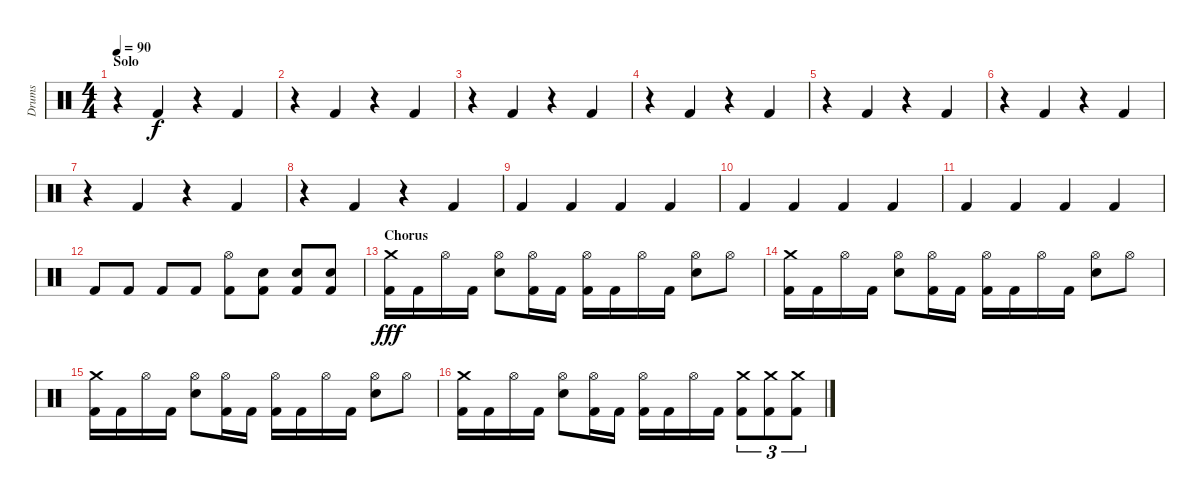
\track ("Drums" "Drums") {instrument percussion}
\staff {score}
\articulation defaults
\ts (4 4)
\section ("" "Solo")
\tempo 90
\clef neutral
\ks c
r.4{dy fff} "Kick (hit) 2".4{dy f} r.4 "Kick (hit) 2".4 |
r.4 "Kick (hit) 2".4 r.4 "Kick (hit) 2".4 |
r.4 "Kick (hit) 2".4 r.4 "Kick (hit) 2".4 |
r.4 "Kick (hit) 2".4 r.4 "Kick (hit) 2".4 |
r.4 "Kick (hit) 2".4 r.4 "Kick (hit) 2".4 |
r.4 "Kick (hit) 2".4 r.4 "Kick (hit) 2".4 |
r.4 "Kick (hit) 2".4 r.4 "Kick (hit) 2".4 |
r.4 "Kick (hit) 2".4 r.4 "Kick (hit) 2".4 |
"Kick (hit) 2".4 "Kick (hit) 2".4 "Kick (hit) 2".4 "Kick (hit) 2".4 |
"Kick (hit) 2".4 "Kick (hit) 2".4 "Kick (hit) 2".4 "Kick (hit) 2".4 |
"Kick (hit) 2".4 "Kick (hit) 2".4 "Kick (hit) 2".4 "Kick (hit) 2".4 |
"Kick (hit) 2".8 "Kick (hit) 2".8 "Kick (hit) 2".8 "Kick (hit) 2".8 ("Kick (hit) 2" "Hi-Hat (open)").8 ("Kick (hit) 2" "Electric Snare (hit)").8 ("Kick (hit) 2" "Electric Snare (hit)").8 ("Kick (hit) 2" "Electric Snare (hit)").8 |
\section ("" "Chorus")
("Crash medium (hit)" "Kick (hit) 2").16{dy fff} "Kick (hit) 2".16 "Hi-Hat (open)".16 "Kick (hit) 2".16 ("Hi-Hat (open)" "Electric Snare (hit)").8 ("Hi-Hat (open)" "Kick (hit) 2").16 "Kick (hit) 2".16 ("Hi-Hat (open)" "Kick (hit) 2").16 "Kick (hit) 2".16 "Hi-Hat (open)".16 "Kick (hit) 2".16 ("Hi-Hat (open)" "Electric Snare (hit)").8 "Hi-Hat (open)".8 |
("Crash medium (hit)" "Kick (hit) 2").16 "Kick (hit) 2".16 "Hi-Hat (open)".16 "Kick (hit) 2".16 ("Hi-Hat (open)" "Electric Snare (hit)").8 ("Hi-Hat (open)" "Kick (hit) 2").16 "Kick (hit) 2".16 ("Hi-Hat (open)" "Kick (hit) 2").16 "Kick (hit) 2".16 "Hi-Hat (open)".16 "Kick (hit) 2".16 ("Hi-Hat (open)" "Electric Snare (hit)").8 "Hi-Hat (open)".8 |
("Crash medium (hit)" "Kick (hit) 2").16 "Kick (hit) 2".16 "Hi-Hat (open)".16 "Kick (hit) 2".16 ("Hi-Hat (open)" "Electric Snare (hit)").8 ("Hi-Hat (open)" "Kick (hit) 2").16 "Kick (hit) 2".16 ("Hi-Hat (open)" "Kick (hit) 2").16 "Kick (hit) 2".16 "Hi-Hat (open)".16 "Kick (hit) 2".16 ("Hi-Hat (open)" "Electric Snare (hit)").8 "Hi-Hat (open)".8 |
("Crash medium (hit)" "Kick (hit) 2").16 "Kick (hit) 2".16 "Hi-Hat (open)".16 "Kick (hit) 2".16 ("Hi-Hat (open)" "Electric Snare (hit)").8 ("Hi-Hat (open)" "Kick (hit) 2").16 "Kick (hit) 2".16 ("Hi-Hat (open)" "Kick (hit) 2").16 "Kick (hit) 2".16 "Hi-Hat (open)".16 "Kick (hit) 2".16 ("Crash medium (hit)" "Kick (hit) 2").8{tu (3 2)} ("Crash medium (hit)" "Kick (hit) 2").8{tu (3 2)} ("Crash medium (hit)" "Kick (hit) 2").8{tu (3 2)}
